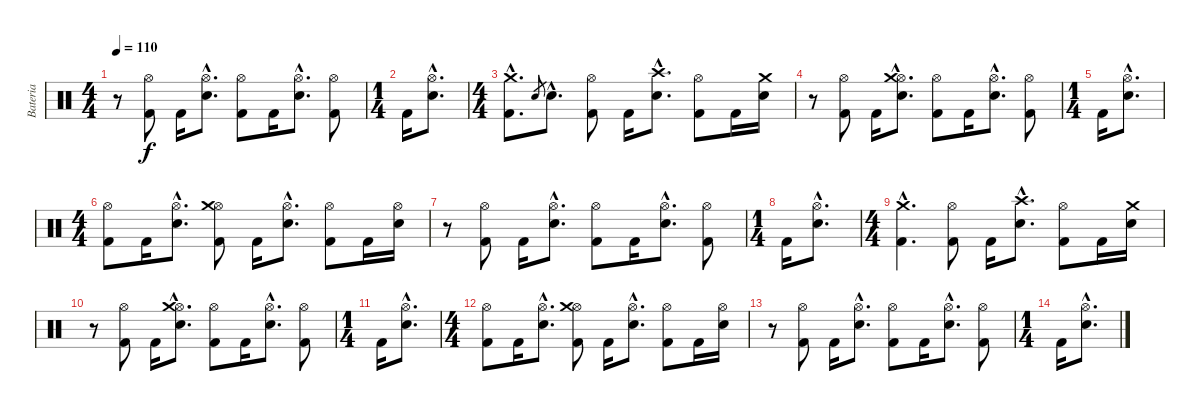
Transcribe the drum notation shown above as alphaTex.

\track ("Bateria" "Bateria") {instrument percussion}
\staff {score}
\articulation defaults
\ts (4 4)
\tempo 110
\clef neutral
\ks c
r.8{dy f} ("Hi-Hat (open)" "Kick (hit) 2").8 "Kick (hit) 2".16 ("Snare (hit) 2"{hac} "Hi-Hat (open)"{hac}).8{d} ("Hi-Hat (open)" "Kick (hit) 2").8 "Kick (hit) 2".16 ("Snare (hit) 2"{hac} "Hi-Hat (open)"{hac}).8{d} ("Hi-Hat (open)" "Kick (hit) 2").8 |
\ts (1 4)
"Kick (hit) 2".16 ("Snare (hit) 2"{hac} "Hi-Hat (open)"{hac}).8{d} |
\ts (4 4)
("Crash medium (hit)"{hac} "Kick (hit) 2"{hac}).8{d} "Snare (hit) 2".8{gr} "Snare (hit) 2"{hac}.8{d} ("Hi-Hat (open)" "Kick (hit) 2").8 "Kick (hit) 2".16 ("Crash high (hit)"{hac} "Snare (hit) 2"{hac}).8{d} ("Hi-Hat (open)" "Kick (hit) 2").8 "Kick (hit) 2".16 ("Snare (hit) 2" "Crash medium (hit)").16 |
r.8 ("Hi-Hat (open)" "Kick (hit) 2").8 "Kick (hit) 2".16 ("Snare (hit) 2"{hac} "Hi-Hat (open)"{hac} "Crash medium (hit)"{hac}).8{d} ("Hi-Hat (open)" "Kick (hit) 2").8 "Kick (hit) 2".16 ("Snare (hit) 2"{hac} "Hi-Hat (open)"{hac}).8{d} ("Hi-Hat (open)" "Kick (hit) 2").8 |
\ts (1 4)
"Kick (hit) 2".16 ("Snare (hit) 2"{hac} "Hi-Hat (open)"{hac}).8{d} |
\ts (4 4)
("Hi-Hat (open)" "Kick (hit) 2").8 "Kick (hit) 2".16 ("Hi-Hat (open)"{hac} "Snare (hit) 2"{hac}).8{d} ("Hi-Hat (open)" "Kick (hit) 2" "Crash medium (hit)").8 "Kick (hit) 2".16 ("Hi-Hat (open)"{hac} "Snare (hit) 2"{hac}).8{d} ("Hi-Hat (open)" "Kick (hit) 2").8 "Kick (hit) 2".16 ("Hi-Hat (open)" "Snare (hit) 2").16 |
r.8 ("Hi-Hat (open)" "Kick (hit) 2").8 "Kick (hit) 2".16 ("Snare (hit) 2"{hac} "Hi-Hat (open)"{hac}).8{d} ("Hi-Hat (open)" "Kick (hit) 2").8 "Kick (hit) 2".16 ("Snare (hit) 2"{hac} "Hi-Hat (open)"{hac}).8{d} ("Hi-Hat (open)" "Kick (hit) 2").8 |
\ts (1 4)
"Kick (hit) 2".16 ("Snare (hit) 2"{hac} "Hi-Hat (open)"{hac}).8{d} |
\ts (4 4)
("Crash medium (hit)"{hac} "Kick (hit) 2"{hac}).4{d} ("Hi-Hat (open)" "Kick (hit) 2").8 "Kick (hit) 2".16 ("Crash high (hit)"{hac} "Snare (hit) 2"{hac}).8{d} ("Hi-Hat (open)" "Kick (hit) 2").8 "Kick (hit) 2".16 ("Snare (hit) 2" "Crash medium (hit)").16 |
r.8 ("Hi-Hat (open)" "Kick (hit) 2").8 "Kick (hit) 2".16 ("Snare (hit) 2"{hac} "Hi-Hat (open)"{hac} "Crash medium (hit)"{hac}).8{d} ("Hi-Hat (open)" "Kick (hit) 2").8 "Kick (hit) 2".16 ("Snare (hit) 2"{hac} "Hi-Hat (open)"{hac}).8{d} ("Hi-Hat (open)" "Kick (hit) 2").8 |
\ts (1 4)
"Kick (hit) 2".16 ("Snare (hit) 2"{hac} "Hi-Hat (open)"{hac}).8{d} |
\ts (4 4)
("Hi-Hat (open)" "Kick (hit) 2").8 "Kick (hit) 2".16 ("Hi-Hat (open)"{hac} "Snare (hit) 2"{hac}).8{d} ("Hi-Hat (open)" "Kick (hit) 2" "Crash medium (hit)").8 "Kick (hit) 2".16 ("Hi-Hat (open)"{hac} "Snare (hit) 2"{hac}).8{d} ("Hi-Hat (open)" "Kick (hit) 2").8 "Kick (hit) 2".16 ("Hi-Hat (open)" "Snare (hit) 2").16 |
r.8 ("Hi-Hat (open)" "Kick (hit) 2").8 "Kick (hit) 2".16 ("Snare (hit) 2"{hac} "Hi-Hat (open)"{hac}).8{d} ("Hi-Hat (open)" "Kick (hit) 2").8 "Kick (hit) 2".16 ("Snare (hit) 2"{hac} "Hi-Hat (open)"{hac}).8{d} ("Hi-Hat (open)" "Kick (hit) 2").8 |
\ts (1 4)
"Kick (hit) 2".16 ("Snare (hit) 2"{hac} "Hi-Hat (open)"{hac}).8{d}
